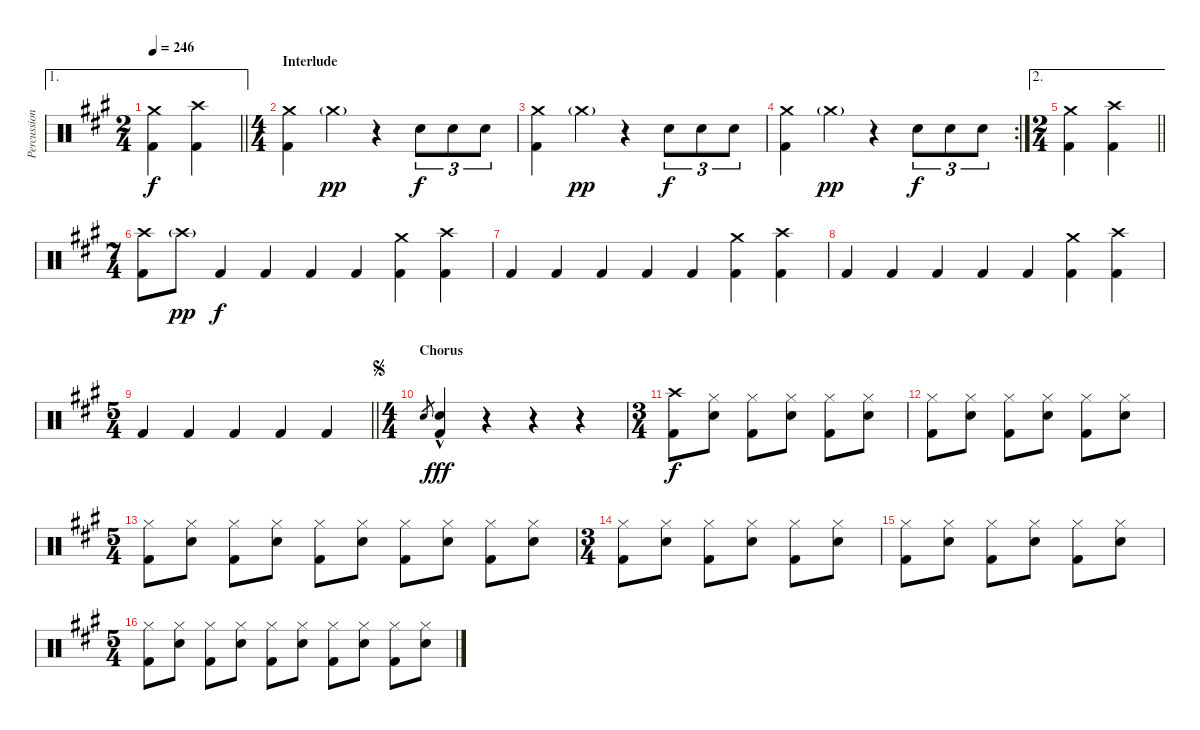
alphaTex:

\track ("Percussion" "Percussion") {instrument percussion}
\staff {score}
\articulation defaults
\ae 1
\ts (2 4)
\tempo 246
\clef neutral
\barLineRight lightlight
\ks f#minor
("Crash medium (hit)" "Kick (hit) 2").4{dy f} ("Crash high (hit)" "Kick (hit) 2").4 |
\ts (4 4)
\section ("" "Interlude")
("Crash medium (hit)" "Kick (hit) 2").4 "Crash medium (hit)"{g}.4{dy pp} r.4 "Electric Snare (hit)".8{tu (3 2) dy f} "Electric Snare (hit)".8{tu (3 2)} "Electric Snare (hit)".8{tu (3 2)} |
("Crash medium (hit)" "Kick (hit) 2").4 "Crash medium (hit)"{g}.4{dy pp} r.4 "Electric Snare (hit)".8{tu (3 2) dy f} "Electric Snare (hit)".8{tu (3 2)} "Electric Snare (hit)".8{tu (3 2)} |
\rc 2
("Crash medium (hit)" "Kick (hit) 2").4 "Crash medium (hit)"{g}.4{dy pp} r.4 "Electric Snare (hit)".8{tu (3 2) dy f} "Electric Snare (hit)".8{tu (3 2)} "Electric Snare (hit)".8{tu (3 2)} |
\ae 2
\ts (2 4)
\barLineRight lightlight
("Crash medium (hit)" "Kick (hit) 2").4 ("Crash high (hit)" "Kick (hit) 2").4 |
\ts (7 4)
("Crash high (hit)" "Kick (hit) 2").8 "Crash high (hit)"{g}.8{dy pp} "Kick (hit) 2".4{dy f} "Kick (hit) 2".4 "Kick (hit) 2".4 "Kick (hit) 2".4 ("Crash medium (hit)" "Kick (hit) 2").4 ("Crash high (hit)" "Kick (hit) 2").4 |
"Kick (hit) 2".4 "Kick (hit) 2".4 "Kick (hit) 2".4 "Kick (hit) 2".4 "Kick (hit) 2".4 ("Crash medium (hit)" "Kick (hit) 2").4 ("Crash high (hit)" "Kick (hit) 2").4 |
"Kick (hit) 2".4 "Kick (hit) 2".4 "Kick (hit) 2".4 "Kick (hit) 2".4 "Kick (hit) 2".4 ("Crash medium (hit)" "Kick (hit) 2").4 ("Crash high (hit)" "Kick (hit) 2").4 |
\ts (5 4)
\barLineRight lightlight "Kick (hit) 2".4 "Kick (hit) 2".4 "Kick (hit) 2".4 "Kick (hit) 2".4 "Kick (hit) 2".4
|
\ts (4 4)
\section ("" "Chorus")
\jump segno "Electric Snare (hit)".8{gr}
("Electric Snare (hit)"{hac} "Kick (hit) 2").4{dy fff} r.4 r.4 r.4 |
\ts (3 4)
("Crash high (hit)" "Kick (hit) 2").8{dy f} ("Hi-Hat (closed)" "Electric Snare (hit)").8 ("Hi-Hat (closed)" "Kick (hit) 2").8 ("Hi-Hat (closed)" "Electric Snare (hit)").8 ("Hi-Hat (closed)" "Kick (hit) 2").8 ("Hi-Hat (closed)" "Electric Snare (hit)").8 |
("Hi-Hat (closed)" "Kick (hit) 2").8 ("Hi-Hat (closed)" "Electric Snare (hit)").8 ("Hi-Hat (closed)" "Kick (hit) 2").8 ("Hi-Hat (closed)" "Electric Snare (hit)").8 ("Hi-Hat (closed)" "Kick (hit) 2").8 ("Hi-Hat (closed)" "Electric Snare (hit)").8 |
\ts (5 4)
("Hi-Hat (closed)" "Kick (hit) 2").8 ("Hi-Hat (closed)" "Electric Snare (hit)").8 ("Hi-Hat (closed)" "Kick (hit) 2").8 ("Hi-Hat (closed)" "Electric Snare (hit)").8 ("Hi-Hat (closed)" "Kick (hit) 2").8 ("Hi-Hat (closed)" "Electric Snare (hit)").8 ("Hi-Hat (closed)" "Kick (hit) 2").8 ("Hi-Hat (closed)" "Electric Snare (hit)").8 ("Hi-Hat (closed)" "Kick (hit) 2").8 ("Hi-Hat (closed)" "Electric Snare (hit)").8 |
\ts (3 4)
("Hi-Hat (closed)" "Kick (hit) 2").8 ("Hi-Hat (closed)" "Electric Snare (hit)").8 ("Hi-Hat (closed)" "Kick (hit) 2").8 ("Hi-Hat (closed)" "Electric Snare (hit)").8 ("Hi-Hat (closed)" "Kick (hit) 2").8 ("Hi-Hat (closed)" "Electric Snare (hit)").8 |
("Hi-Hat (closed)" "Kick (hit) 2").8 ("Hi-Hat (closed)" "Electric Snare (hit)").8 ("Hi-Hat (closed)" "Kick (hit) 2").8 ("Hi-Hat (closed)" "Electric Snare (hit)").8 ("Hi-Hat (closed)" "Kick (hit) 2").8 ("Hi-Hat (closed)" "Electric Snare (hit)").8 |
\ts (5 4)
("Hi-Hat (closed)" "Kick (hit) 2").8 ("Hi-Hat (closed)" "Electric Snare (hit)").8 ("Hi-Hat (closed)" "Kick (hit) 2").8 ("Hi-Hat (closed)" "Electric Snare (hit)").8 ("Hi-Hat (closed)" "Kick (hit) 2").8 ("Hi-Hat (closed)" "Electric Snare (hit)").8 ("Hi-Hat (closed)" "Kick (hit) 2").8 ("Hi-Hat (closed)" "Electric Snare (hit)").8 ("Hi-Hat (closed)" "Kick (hit) 2").8 ("Hi-Hat (closed)" "Electric Snare (hit)").8
